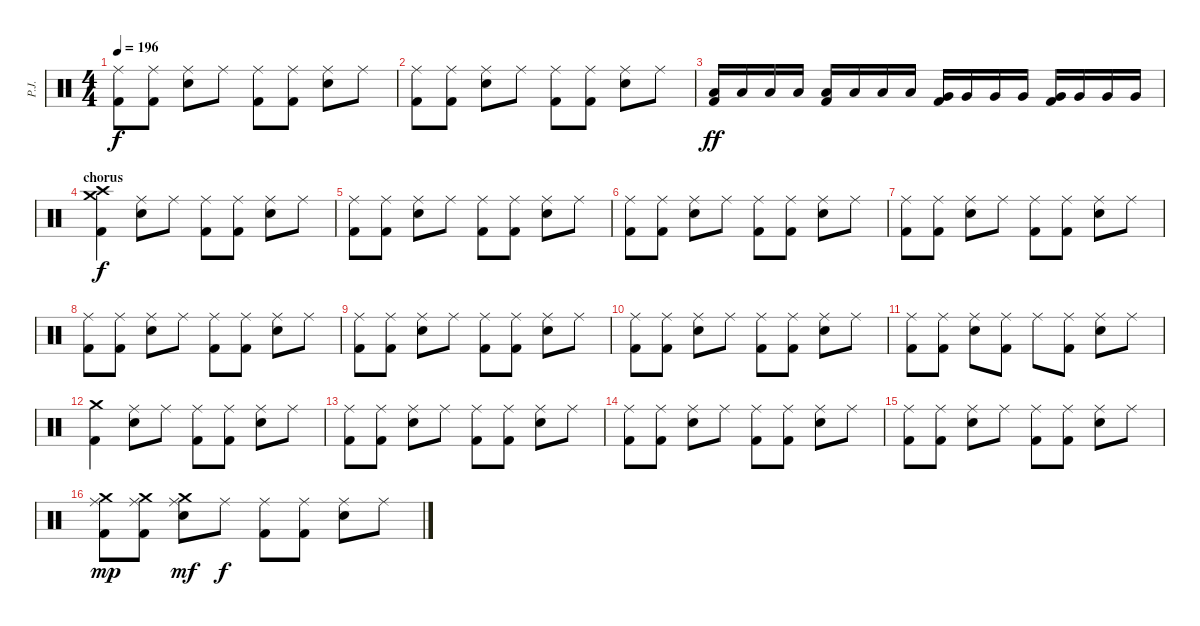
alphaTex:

\track ("P.J." "P.J.") {instrument percussion}
\staff {score}
\articulation defaults
\ts (4 4)
\tempo 196
\clef neutral
\ks c
("Ride (middle)" "Kick (hit) 2").8{dy f} ("Ride (middle)" "Kick (hit) 2").8 ("Ride (middle)" "Snare (hit) 2").8 "Ride (middle)".8 ("Ride (middle)" "Kick (hit) 2").8 ("Ride (middle)" "Kick (hit) 2").8 ("Ride (middle)" "Snare (hit) 2").8 "Ride (middle)".8 |
("Ride (middle)" "Kick (hit) 2").8 ("Ride (middle)" "Kick (hit) 2").8 ("Ride (middle)" "Snare (hit) 2").8 "Ride (middle)".8 ("Ride (middle)" "Kick (hit) 2").8 ("Ride (middle)" "Kick (hit) 2").8 ("Ride (middle)" "Snare (hit) 2").8 "Ride (middle)".8 |
("Low Tom (hit)" "Kick (hit) 2").16{dy ff} "Low Tom (hit)".16 "Low Tom (hit)".16 "Low Tom (hit)".16 ("Low Tom (hit)" "Kick (hit) 2").16 "Low Tom (hit)".16 "Low Tom (hit)".16 "Low Tom (hit)".16 ("Very Low Tom (hit)" "Kick (hit) 2").16 "Very Low Tom (hit)".16 "Very Low Tom (hit)".16 "Very Low Tom (hit)".16 ("Very Low Tom (hit)" "Kick (hit) 2").16 "Very Low Tom (hit)".16 "Very Low Tom (hit)".16 "Very Low Tom (hit)".16 |
\section ("" "chorus")
("Crash high (hit)" "Crash medium (hit)" "Kick (hit) 2").4{dy f} ("Ride (middle)" "Snare (hit) 2").8 "Ride (middle)".8 ("Ride (middle)" "Kick (hit) 2").8 ("Ride (middle)" "Kick (hit) 2").8 ("Ride (middle)" "Snare (hit) 2").8 "Ride (middle)".8 |
("Ride (middle)" "Kick (hit) 2").8 ("Ride (middle)" "Kick (hit) 2").8 ("Ride (middle)" "Snare (hit) 2").8 "Ride (middle)".8 ("Ride (middle)" "Kick (hit) 2").8 ("Ride (middle)" "Kick (hit) 2").8 ("Ride (middle)" "Snare (hit) 2").8 "Ride (middle)".8 |
("Ride (middle)" "Kick (hit) 2").8 ("Ride (middle)" "Kick (hit) 2").8 ("Ride (middle)" "Snare (hit) 2").8 "Ride (middle)".8 ("Ride (middle)" "Kick (hit) 2").8 ("Ride (middle)" "Kick (hit) 2").8 ("Ride (middle)" "Snare (hit) 2").8 "Ride (middle)".8 |
("Ride (middle)" "Kick (hit) 2").8 ("Ride (middle)" "Kick (hit) 2").8 ("Ride (middle)" "Snare (hit) 2").8 "Ride (middle)".8 ("Ride (middle)" "Kick (hit) 2").8 ("Ride (middle)" "Kick (hit) 2").8 ("Ride (middle)" "Snare (hit) 2").8 "Ride (middle)".8 |
("Ride (middle)" "Kick (hit) 2").8 ("Ride (middle)" "Kick (hit) 2").8 ("Ride (middle)" "Snare (hit) 2").8 "Ride (middle)".8 ("Ride (middle)" "Kick (hit) 2").8 ("Ride (middle)" "Kick (hit) 2").8 ("Ride (middle)" "Snare (hit) 2").8 "Ride (middle)".8 |
("Ride (middle)" "Kick (hit) 2").8 ("Ride (middle)" "Kick (hit) 2").8 ("Ride (middle)" "Snare (hit) 2").8 "Ride (middle)".8 ("Ride (middle)" "Kick (hit) 2").8 ("Ride (middle)" "Kick (hit) 2").8 ("Ride (middle)" "Snare (hit) 2").8 "Ride (middle)".8 |
("Ride (middle)" "Kick (hit) 2").8 ("Ride (middle)" "Kick (hit) 2").8 ("Ride (middle)" "Snare (hit) 2").8 "Ride (middle)".8 ("Ride (middle)" "Kick (hit) 2").8 ("Ride (middle)" "Kick (hit) 2").8 ("Ride (middle)" "Snare (hit) 2").8 "Ride (middle)".8 |
("Ride (middle)" "Kick (hit) 2").8 ("Ride (middle)" "Kick (hit) 2").8 ("Ride (middle)" "Snare (hit) 2").8 ("Ride (middle)" "Kick (hit) 2").8 "Ride (middle)".8 ("Ride (middle)" "Kick (hit) 2").8 ("Ride (middle)" "Snare (hit) 2").8 "Ride (middle)".8 |
("Crash medium (hit)" "Kick (hit) 2").4 ("Ride (middle)" "Snare (hit) 2").8 "Ride (middle)".8 ("Ride (middle)" "Kick (hit) 2").8 ("Ride (middle)" "Kick (hit) 2").8 ("Ride (middle)" "Snare (hit) 2").8 "Ride (middle)".8 |
("Ride (middle)" "Kick (hit) 2").8 ("Ride (middle)" "Kick (hit) 2").8 ("Ride (middle)" "Snare (hit) 2").8 "Ride (middle)".8 ("Ride (middle)" "Kick (hit) 2").8 ("Ride (middle)" "Kick (hit) 2").8 ("Ride (middle)" "Snare (hit) 2").8 "Ride (middle)".8 |
("Ride (middle)" "Kick (hit) 2").8 ("Ride (middle)" "Kick (hit) 2").8 ("Ride (middle)" "Snare (hit) 2").8 "Ride (middle)".8 ("Ride (middle)" "Kick (hit) 2").8 ("Ride (middle)" "Kick (hit) 2").8 ("Ride (middle)" "Snare (hit) 2").8 "Ride (middle)".8 |
("Ride (middle)" "Kick (hit) 2").8 ("Ride (middle)" "Kick (hit) 2").8 ("Ride (middle)" "Snare (hit) 2").8 "Ride (middle)".8 ("Ride (middle)" "Kick (hit) 2").8 ("Ride (middle)" "Kick (hit) 2").8 ("Ride (middle)" "Snare (hit) 2").8 "Ride (middle)".8 |
("Ride (middle)" "Crash medium (hit)" "Kick (hit) 2").8{dy mp} ("Ride (middle)" "Crash medium (hit)" "Kick (hit) 2").8 ("Ride (middle)" "Crash medium (hit)" "Snare (hit) 2").8{dy mf} "Ride (middle)".8{dy f} ("Ride (middle)" "Kick (hit) 2").8 ("Ride (middle)" "Kick (hit) 2").8 ("Ride (middle)" "Snare (hit) 2").8 "Ride (middle)".8
